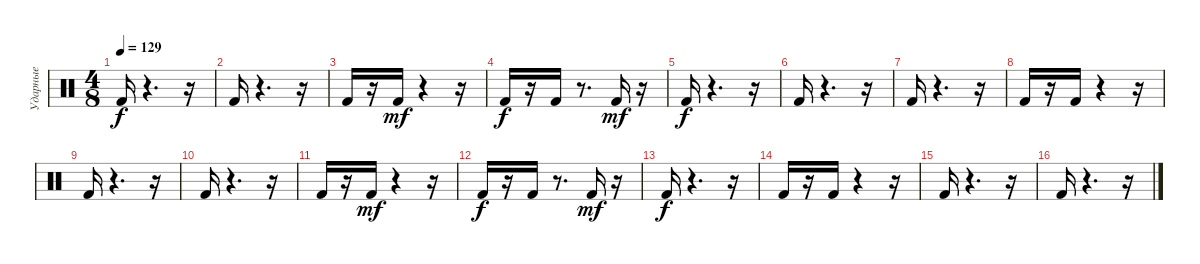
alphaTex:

\track ("Ударные" "Ударные") {instrument percussion}
\staff {score}
\articulation defaults
\ts (4 8)
\tempo 129
\clef neutral
\ks c "Kick (hit) 2".16{dy f}
r.4{d} r.16 |
"Kick (hit) 2".16 r.4{d} r.16 |
"Kick (hit) 2".16 r.16 "Kick (hit) 2".16{dy mf} r.4 r.16 |
"Kick (hit) 2".16{dy f} r.16 "Kick (hit) 2".16 r.8{d} "Kick (hit) 2".16{dy mf} r.16 |
"Kick (hit) 2".16{dy f} r.4{d} r.16 |
"Kick (hit) 2".16 r.4{d} r.16 |
"Kick (hit) 2".16 r.4{d} r.16 |
"Kick (hit) 2".16 r.16 "Kick (hit) 2".16 r.4 r.16 |
"Kick (hit) 2".16 r.4{d} r.16 |
"Kick (hit) 2".16 r.4{d} r.16 |
"Kick (hit) 2".16 r.16 "Kick (hit) 2".16{dy mf} r.4 r.16 |
"Kick (hit) 2".16{dy f} r.16 "Kick (hit) 2".16 r.8{d} "Kick (hit) 2".16{dy mf} r.16 |
"Kick (hit) 2".16{dy f} r.4{d} r.16 |
"Kick (hit) 2".16 r.16 "Kick (hit) 2".16 r.4 r.16 |
"Kick (hit) 2".16 r.4{d} r.16 |
"Kick (hit) 2".16 r.4{d} r.16
